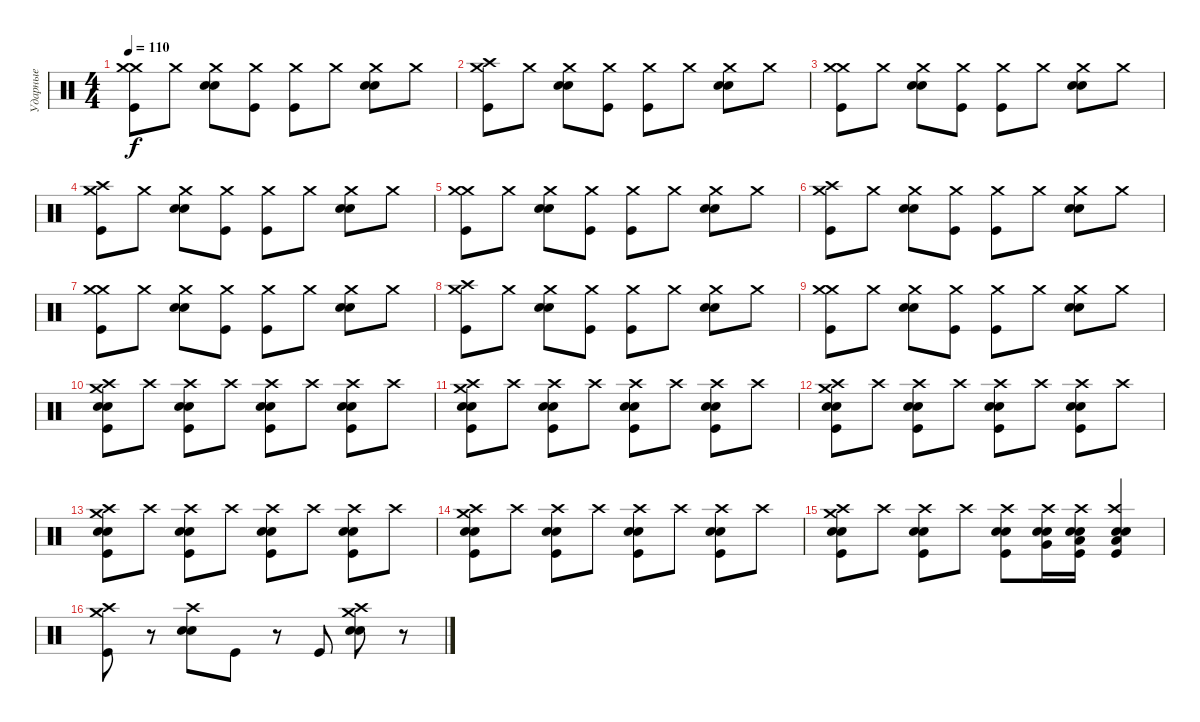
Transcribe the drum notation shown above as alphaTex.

\track ("Ударные" "Ударные") {instrument percussion}
\staff {score}
\articulation defaults
\ts (4 4)
\tempo 110
\clef neutral
\ks c
("Crash medium (hit)" "Crash medium (hit)" "Kick (hit)").8{dy f} "Crash medium (hit)".8 ("Crash medium (hit)" "Snare (hit) 2" "Snare (hit) 2").8 ("Crash medium (hit)" "Kick (hit)").8 ("Crash medium (hit)" "Kick (hit)").8 "Crash medium (hit)".8 ("Crash medium (hit)" "Snare (hit) 2" "Snare (hit) 2").8 "Crash medium (hit)".8 |
("Crash medium (hit)" "Crash high (hit)" "Kick (hit)").8 "Crash medium (hit)".8 ("Crash medium (hit)" "Snare (hit) 2" "Snare (hit) 2").8 ("Crash medium (hit)" "Kick (hit)").8 ("Crash medium (hit)" "Kick (hit)").8 "Crash medium (hit)".8 ("Crash medium (hit)" "Snare (hit) 2" "Snare (hit) 2").8 "Crash medium (hit)".8 |
("Crash medium (hit)" "Crash medium (hit)" "Kick (hit)").8 "Crash medium (hit)".8 ("Crash medium (hit)" "Snare (hit) 2" "Snare (hit) 2").8 ("Crash medium (hit)" "Kick (hit)").8 ("Crash medium (hit)" "Kick (hit)").8 "Crash medium (hit)".8 ("Crash medium (hit)" "Snare (hit) 2" "Snare (hit) 2").8 "Crash medium (hit)".8 |
("Crash medium (hit)" "Crash high (hit)" "Kick (hit)").8 "Crash medium (hit)".8 ("Crash medium (hit)" "Snare (hit) 2" "Snare (hit) 2").8 ("Crash medium (hit)" "Kick (hit)").8 ("Crash medium (hit)" "Kick (hit)").8 "Crash medium (hit)".8 ("Crash medium (hit)" "Snare (hit) 2" "Snare (hit) 2").8 "Crash medium (hit)".8 |
("Crash medium (hit)" "Crash medium (hit)" "Kick (hit)").8 "Crash medium (hit)".8 ("Crash medium (hit)" "Snare (hit) 2" "Snare (hit) 2").8 ("Crash medium (hit)" "Kick (hit)").8 ("Crash medium (hit)" "Kick (hit)").8 "Crash medium (hit)".8 ("Crash medium (hit)" "Snare (hit) 2" "Snare (hit) 2").8 "Crash medium (hit)".8 |
("Crash medium (hit)" "Crash high (hit)" "Kick (hit)").8 "Crash medium (hit)".8 ("Crash medium (hit)" "Snare (hit) 2" "Snare (hit) 2").8 ("Crash medium (hit)" "Kick (hit)").8 ("Crash medium (hit)" "Kick (hit)").8 "Crash medium (hit)".8 ("Crash medium (hit)" "Snare (hit) 2" "Snare (hit) 2").8 "Crash medium (hit)".8 |
("Crash medium (hit)" "Crash medium (hit)" "Kick (hit)").8 "Crash medium (hit)".8 ("Crash medium (hit)" "Snare (hit) 2" "Snare (hit) 2").8 ("Crash medium (hit)" "Kick (hit)").8 ("Crash medium (hit)" "Kick (hit)").8 "Crash medium (hit)".8 ("Crash medium (hit)" "Snare (hit) 2" "Snare (hit) 2").8 "Crash medium (hit)".8 |
("Crash medium (hit)" "Crash high (hit)" "Kick (hit)").8 "Crash medium (hit)".8 ("Crash medium (hit)" "Snare (hit) 2" "Snare (hit) 2").8 ("Crash medium (hit)" "Kick (hit)").8 ("Crash medium (hit)" "Kick (hit)").8 "Crash medium (hit)".8 ("Crash medium (hit)" "Snare (hit) 2" "Snare (hit) 2").8 "Crash medium (hit)".8 |
("Crash medium (hit)" "Crash medium (hit)" "Kick (hit)").8 "Crash medium (hit)".8 ("Crash medium (hit)" "Snare (hit) 2" "Snare (hit) 2").8 ("Crash medium (hit)" "Kick (hit)").8 ("Crash medium (hit)" "Kick (hit)").8 "Crash medium (hit)".8 ("Crash medium (hit)" "Snare (hit) 2" "Snare (hit) 2").8 "Crash medium (hit)".8 |
("Crash high (hit)" "Crash medium (hit)" "Snare (hit) 2" "Snare (hit) 2" "Kick (hit)").8 "Crash high (hit)".8 ("Crash high (hit)" "Snare (hit) 2" "Snare (hit) 2" "Kick (hit)").8 "Crash high (hit)".8 ("Crash high (hit)" "Snare (hit) 2" "Snare (hit) 2" "Kick (hit)").8 "Crash high (hit)".8 ("Crash high (hit)" "Snare (hit) 2" "Snare (hit) 2" "Kick (hit)").8 "Crash high (hit)".8 |
("Crash high (hit)" "Crash medium (hit)" "Snare (hit) 2" "Snare (hit) 2" "Kick (hit)").8 "Crash high (hit)".8 ("Crash high (hit)" "Snare (hit) 2" "Snare (hit) 2" "Kick (hit)").8 "Crash high (hit)".8 ("Crash high (hit)" "Snare (hit) 2" "Snare (hit) 2" "Kick (hit)").8 "Crash high (hit)".8 ("Crash high (hit)" "Snare (hit) 2" "Snare (hit) 2" "Kick (hit)").8 "Crash high (hit)".8 |
("Crash high (hit)" "Crash medium (hit)" "Snare (hit) 2" "Snare (hit) 2" "Kick (hit)").8 "Crash high (hit)".8 ("Crash high (hit)" "Snare (hit) 2" "Snare (hit) 2" "Kick (hit)").8 "Crash high (hit)".8 ("Crash high (hit)" "Snare (hit) 2" "Snare (hit) 2" "Kick (hit)").8 "Crash high (hit)".8 ("Crash high (hit)" "Snare (hit) 2" "Snare (hit) 2" "Kick (hit)").8 "Crash high (hit)".8 |
("Crash high (hit)" "Crash medium (hit)" "Snare (hit) 2" "Snare (hit) 2" "Kick (hit)").8 "Crash high (hit)".8 ("Crash high (hit)" "Snare (hit) 2" "Snare (hit) 2" "Kick (hit)").8 "Crash high (hit)".8 ("Crash high (hit)" "Snare (hit) 2" "Snare (hit) 2" "Kick (hit)").8 "Crash high (hit)".8 ("Crash high (hit)" "Snare (hit) 2" "Snare (hit) 2" "Kick (hit)").8 "Crash high (hit)".8 |
("Crash high (hit)" "Crash medium (hit)" "Snare (hit) 2" "Snare (hit) 2" "Kick (hit)").8 "Crash high (hit)".8 ("Crash high (hit)" "Snare (hit) 2" "Snare (hit) 2" "Kick (hit)").8 "Crash high (hit)".8 ("Crash high (hit)" "Snare (hit) 2" "Snare (hit) 2" "Kick (hit)").8 "Crash high (hit)".8 ("Crash high (hit)" "Snare (hit) 2" "Snare (hit) 2" "Kick (hit)").8 "Crash high (hit)".8 |
("Crash high (hit)" "Crash medium (hit)" "Snare (hit) 2" "Snare (hit) 2" "Kick (hit)").8 "Crash high (hit)".8 ("Crash high (hit)" "Snare (hit) 2" "Snare (hit) 2" "Kick (hit)").8 "Crash high (hit)".8 ("Crash high (hit)" "Snare (hit) 2" "Snare (hit) 2" "Kick (hit)").8 ("Crash high (hit)" "Electric Snare (hit)" "Electric Snare (hit)" "Very Low Tom (hit)").16 ("Crash high (hit)" "Snare (hit) 2" "Snare (hit) 2" "Low Floor Tom (hit)" "Kick (hit)").16 ("Crash high (hit)" "Electric Snare (hit)" "Electric Snare (hit)" "Low Floor Tom (hit)" "Kick (hit)").4 |
("Crash high (hit)" "Crash medium (hit)" "Kick (hit)").8 r.8 ("Crash high (hit)" "Snare (hit) 2" "Snare (hit) 2").8 "Kick (hit)".8 r.8 "Kick (hit)".8 ("Crash high (hit)" "Crash medium (hit)" "Snare (hit) 2" "Snare (hit) 2").8 r.8
